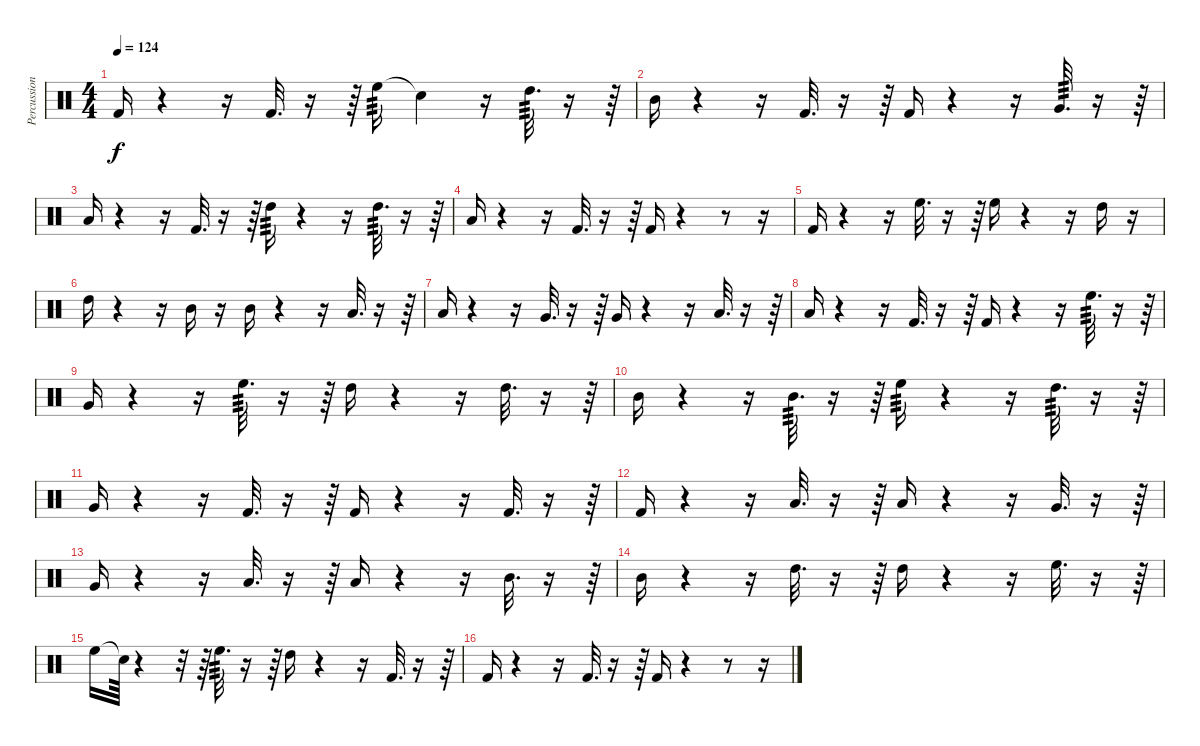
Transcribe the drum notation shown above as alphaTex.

\track ("Percussion" "Percussion") {instrument percussion}
\staff {score}
\articulation defaults
\ts (4 4)
\tempo 124
\clef neutral
\ks c "Kick (hit) 2".16{dy f}
r.4 r.16 "Kick (hit) 2".32{d} r.16 r.64 "High Floor Tom (hit)".16{tp 3} "Snare (hit)"{t}.4 r.16 "High Tom (hit)".32{d tp 3} r.16 r.64 |
"Mid Tom (hit)".16 r.4 r.16 "Kick (hit) 2".32{d} r.16 r.64 "Kick (hit) 2".16 r.4 r.16 "Very Low Tom (hit)".32{d tp 3} r.16 r.64 |
"Low Floor Tom (hit)".16 r.4 r.16 "Kick (hit) 2".32{d} r.16 r.64 "High Tom (hit)".16{tp 3} r.4 r.16 "High Tom (hit)".32{d tp 3} r.16 r.64 |
"Low Tom (hit)".16 r.4 r.16 "Kick (hit) 2".32{d} r.16 r.64 "Kick (hit) 2".16 r.4 r.8 r.16 |
"Kick (hit) 2".16 r.4 r.16 "High Floor Tom (hit)".32{d} r.16 r.64 "High Floor Tom (hit)".16 r.4 r.16 "High Tom (hit)".16 r.16 |
"High Tom (hit)".16 r.4 r.16 "Mid Tom (hit)".16 r.16 "Mid Tom (hit)".16 r.4 r.16 "Low Tom (hit)".32{d} r.16 r.64 |
"Low Tom (hit)".16 r.4 r.16 "Very Low Tom (hit)".32{d} r.16 r.64 "Very Low Tom (hit)".16 r.4 r.16 "Low Floor Tom (hit)".32{d} r.16 r.64 |
"Low Floor Tom (hit)".16 r.4 r.16 "Kick (hit) 2".32{d} r.16 r.64 "Kick (hit) 2".16 r.4 r.16 "High Floor Tom (hit)".32{d tp 3} r.16 r.64 |
"Very Low Tom (hit)".16 r.4 r.16 "High Floor Tom (hit)".32{d tp 3} r.16 r.64 "High Tom (hit)".16 r.4 r.16 "High Tom (hit)".32{d} r.16 r.64 |
"Mid Tom (hit)".16 r.4 r.16 "Mid Tom (hit)".32{d tp 3} r.16 r.64 "High Floor Tom (hit)".16{tp 3} r.4 r.16 "High Tom (hit)".32{d tp 3} r.16 r.64 |
"Very Low Tom (hit)".16 r.4 r.16 "Kick (hit) 2".32{d} r.16 r.64 "Kick (hit) 2".16 r.4 r.16 "Kick (hit) 2".32{d} r.16 r.64 |
"Kick (hit) 2".16 r.4 r.16 "Low Floor Tom (hit)".32{d} r.16 r.64 "Low Floor Tom (hit)".16 r.4 r.16 "Very Low Tom (hit)".32{d} r.16 r.64 |
"Very Low Tom (hit)".16 r.4 r.16 "Low Tom (hit)".32{d} r.16 r.64 "Low Tom (hit)".16 r.4 r.16 "Mid Tom (hit)".32{d} r.16 r.64 |
"Mid Tom (hit)".16 r.4 r.16 "High Tom (hit)".32{d} r.16 r.64 "High Tom (hit)".16 r.4 r.16 "High Floor Tom (hit)".32{d} r.16 r.64 |
"High Floor Tom (hit)".16 "Snare (hit)"{t}.64 r.4 r.32 r.64 "High Floor Tom (hit)".32{d tp 3} r.16 r.64 "High Tom (hit)".16 r.4 r.16 "Kick (hit) 2".32{d} r.16 r.64 |
"Kick (hit) 2".16 r.4 r.16 "Kick (hit) 2".32{d} r.16 r.64 "Kick (hit) 2".16 r.4 r.8 r.16
